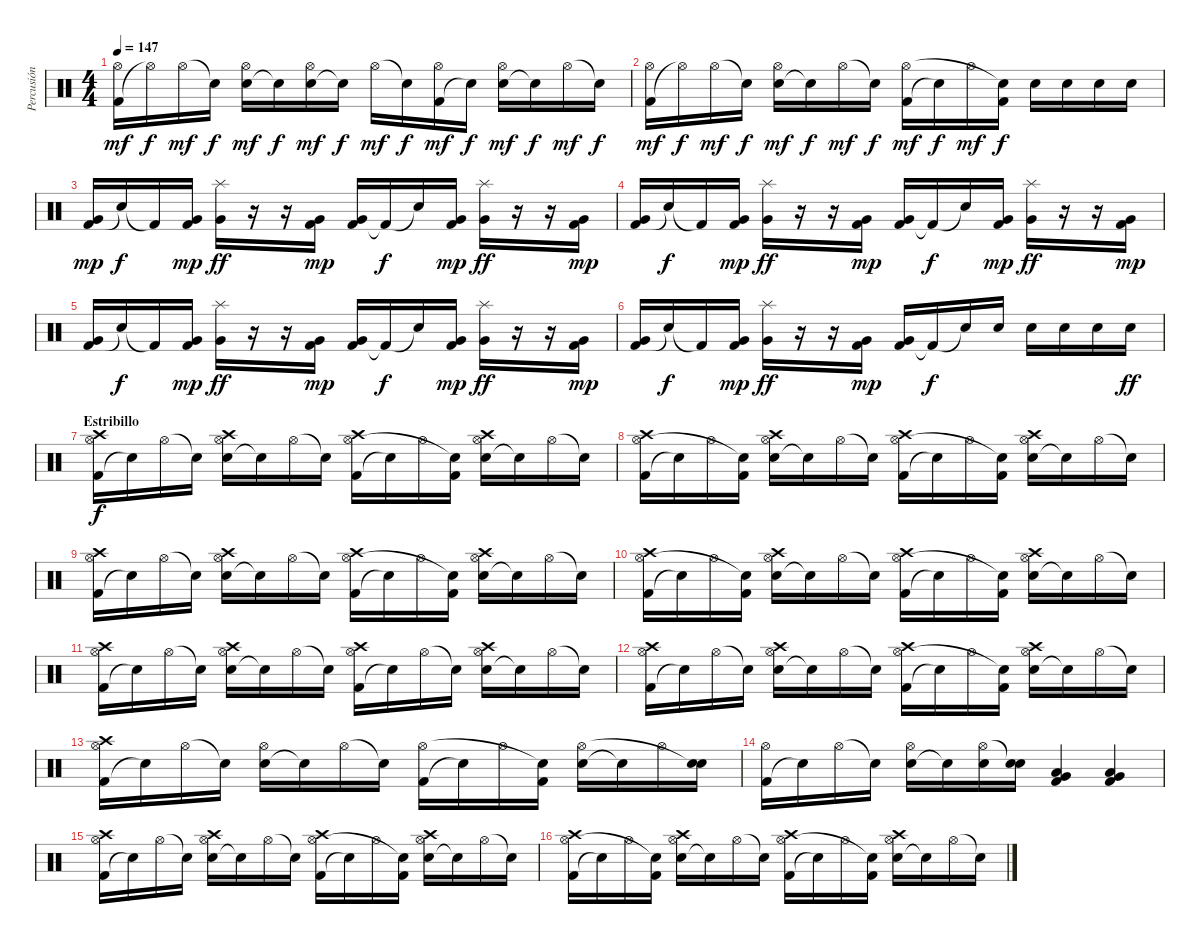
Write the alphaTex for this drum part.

\track ("Percusión" "Percusión") {instrument percussion}
\staff {score}
\articulation defaults
\ts (4 4)
\tempo 147
\clef neutral
\ks c
("Kick (hit) 2" "Hi-Hat (open)").16{dy mf} "Hi-Hat (open)"{t}.16{dy f} "Hi-Hat (open)".16{dy mf} "Snare (hit)"{t}.16{dy f} ("Electric Snare (hit)" "Hi-Hat (open)").16{dy mf} "Snare (hit)"{t}.16{dy f} ("Electric Snare (hit)" "Hi-Hat (open)").16{dy mf} "Snare (hit)"{t}.16{dy f} "Hi-Hat (open)".16{dy mf} "Snare (hit)"{t}.16{dy f} ("Kick (hit) 2" "Hi-Hat (open)").16{dy mf} "Snare (hit)"{t}.16{dy f} ("Electric Snare (hit)" "Hi-Hat (open)").16{dy mf} "Snare (hit)"{t}.16{dy f} "Hi-Hat (open)".16{dy mf} "Snare (hit)"{t}.16{dy f} |
("Kick (hit) 2" "Hi-Hat (open)").16{dy mf} "Hi-Hat (open)"{t}.16{dy f} "Hi-Hat (open)".16{dy mf} "Snare (hit)"{t}.16{dy f} ("Electric Snare (hit)" "Hi-Hat (open)").16{dy mf} "Snare (hit)"{t}.16{dy f} "Hi-Hat (open)".16{dy mf} "Snare (hit)"{t}.16{dy f} ("Kick (hit) 2" "Hi-Hat (open)").16{dy mf} "Snare (hit)"{t}.16{dy f} "Hi-Hat (open)".16{dy mf} ("Kick (hit) 2" "Snare (hit)"{t}).16{dy f} "Electric Snare (hit)".16 "Electric Snare (hit)".16 "Electric Snare (hit)".16 "Electric Snare (hit)".16 |
("Kick (hit) 2" "Very Low Tom (hit)").16{dy mp} "Snare (hit)"{t}.16{dy f} "Kick (hit) 2"{t}.16 ("Kick (hit) 2" "Very Low Tom (hit)").16{dy mp} ("Very Low Tom (hit)" "Splash (hit)").16{dy ff} r.16 r.16 ("Kick (hit) 2" "Very Low Tom (hit)").16{dy mp} ("Kick (hit) 2" "Very Low Tom (hit)").16 "Kick (hit) 2"{t}.16{dy f} "Snare (hit)"{t}.16 ("Kick (hit) 2" "Very Low Tom (hit)").16{dy mp} ("Very Low Tom (hit)" "Splash (hit)").16{dy ff} r.16 r.16 ("Kick (hit) 2" "Very Low Tom (hit)").16{dy mp} |
("Kick (hit) 2" "Very Low Tom (hit)").16 "Snare (hit)"{t}.16{dy f} "Kick (hit) 2"{t}.16 ("Kick (hit) 2" "Very Low Tom (hit)").16{dy mp} ("Very Low Tom (hit)" "Splash (hit)").16{dy ff} r.16 r.16 ("Kick (hit) 2" "Very Low Tom (hit)").16{dy mp} ("Kick (hit) 2" "Very Low Tom (hit)").16 "Kick (hit) 2"{t}.16{dy f} "Snare (hit)"{t}.16 ("Kick (hit) 2" "Very Low Tom (hit)").16{dy mp} ("Very Low Tom (hit)" "Splash (hit)").16{dy ff} r.16 r.16 ("Kick (hit) 2" "Very Low Tom (hit)").16{dy mp} |
("Kick (hit) 2" "Very Low Tom (hit)").16 "Snare (hit)"{t}.16{dy f} "Kick (hit) 2"{t}.16 ("Kick (hit) 2" "Very Low Tom (hit)").16{dy mp} ("Very Low Tom (hit)" "Splash (hit)").16{dy ff} r.16 r.16 ("Kick (hit) 2" "Very Low Tom (hit)").16{dy mp} ("Kick (hit) 2" "Very Low Tom (hit)").16 "Kick (hit) 2"{t}.16{dy f} "Snare (hit)"{t}.16 ("Kick (hit) 2" "Very Low Tom (hit)").16{dy mp} ("Very Low Tom (hit)" "Splash (hit)").16{dy ff} r.16 r.16 ("Kick (hit) 2" "Very Low Tom (hit)").16{dy mp} |
("Kick (hit) 2" "Very Low Tom (hit)").16 "Snare (hit)"{t}.16{dy f} "Kick (hit) 2"{t}.16 ("Kick (hit) 2" "Very Low Tom (hit)").16{dy mp} ("Very Low Tom (hit)" "Splash (hit)").16{dy ff} r.16 r.16 ("Kick (hit) 2" "Very Low Tom (hit)").16{dy mp} ("Kick (hit) 2" "Very Low Tom (hit)").16 "Kick (hit) 2"{t}.16{dy f} "Snare (hit)"{t}.16 "Electric Snare (hit)".16 "Electric Snare (hit)".16 "Electric Snare (hit)".16 "Electric Snare (hit)".16 "Electric Snare (hit)".16{dy ff} |
\section ("" "Estribillo")
("Kick (hit) 2" "Hi-Hat (open)" "Crash high (hit)").16{dy f} "Snare (hit)"{t}.16 "Hi-Hat (open)".16 "Snare (hit)"{t}.16 ("Electric Snare (hit)" "Hi-Hat (open)" "Crash high (hit)").16 "Snare (hit)"{t}.16 "Hi-Hat (open)".16 "Snare (hit)"{t}.16 ("Kick (hit) 2" "Hi-Hat (open)" "Crash high (hit)").16 "Snare (hit)"{t}.16 "Hi-Hat (open)".16 ("Kick (hit) 2" "Snare (hit)"{t}).16 ("Electric Snare (hit)" "Hi-Hat (open)" "Crash high (hit)").16 "Snare (hit)"{t}.16 "Hi-Hat (open)".16 "Snare (hit)"{t}.16 |
("Kick (hit) 2" "Hi-Hat (open)" "Crash high (hit)").16 "Snare (hit)"{t}.16 "Hi-Hat (open)".16 ("Kick (hit) 2" "Snare (hit)"{t}).16 ("Electric Snare (hit)" "Hi-Hat (open)" "Crash high (hit)").16 "Snare (hit)"{t}.16 "Hi-Hat (open)".16 "Snare (hit)"{t}.16 ("Kick (hit) 2" "Hi-Hat (open)" "Crash high (hit)").16 "Snare (hit)"{t}.16 "Hi-Hat (open)".16 ("Kick (hit) 2" "Snare (hit)"{t}).16 ("Electric Snare (hit)" "Hi-Hat (open)" "Crash high (hit)").16 "Snare (hit)"{t}.16 "Hi-Hat (open)".16 "Snare (hit)"{t}.16 |
("Kick (hit) 2" "Hi-Hat (open)" "Crash high (hit)").16 "Snare (hit)"{t}.16 "Hi-Hat (open)".16 "Snare (hit)"{t}.16 ("Electric Snare (hit)" "Hi-Hat (open)" "Crash high (hit)").16 "Snare (hit)"{t}.16 "Hi-Hat (open)".16 "Snare (hit)"{t}.16 ("Kick (hit) 2" "Hi-Hat (open)" "Crash high (hit)").16 "Snare (hit)"{t}.16 "Hi-Hat (open)".16 ("Kick (hit) 2" "Snare (hit)"{t}).16 ("Electric Snare (hit)" "Hi-Hat (open)" "Crash high (hit)").16 "Snare (hit)"{t}.16 "Hi-Hat (open)".16 "Snare (hit)"{t}.16 |
("Kick (hit) 2" "Hi-Hat (open)" "Crash high (hit)").16 "Snare (hit)"{t}.16 "Hi-Hat (open)".16 ("Kick (hit) 2" "Snare (hit)"{t}).16 ("Electric Snare (hit)" "Hi-Hat (open)" "Crash high (hit)").16 "Snare (hit)"{t}.16 "Hi-Hat (open)".16 "Snare (hit)"{t}.16 ("Kick (hit) 2" "Hi-Hat (open)" "Crash high (hit)").16 "Snare (hit)"{t}.16 "Hi-Hat (open)".16 ("Kick (hit) 2" "Snare (hit)"{t}).16 ("Electric Snare (hit)" "Hi-Hat (open)" "Crash high (hit)").16 "Snare (hit)"{t}.16 "Hi-Hat (open)".16 "Snare (hit)"{t}.16 |
("Kick (hit) 2" "Hi-Hat (open)" "Crash high (hit)").16 "Snare (hit)"{t}.16 "Hi-Hat (open)".16 "Snare (hit)"{t}.16 ("Electric Snare (hit)" "Hi-Hat (open)" "Crash high (hit)").16 "Snare (hit)"{t}.16 "Hi-Hat (open)".16 "Snare (hit)"{t}.16 ("Kick (hit) 2" "Hi-Hat (open)" "Crash high (hit)").16 "Snare (hit)"{t}.16 "Hi-Hat (open)".16 "Snare (hit)"{t}.16 ("Electric Snare (hit)" "Hi-Hat (open)" "Crash high (hit)").16 "Snare (hit)"{t}.16 "Hi-Hat (open)".16 "Snare (hit)"{t}.16 |
("Kick (hit) 2" "Hi-Hat (open)" "Crash high (hit)").16 "Snare (hit)"{t}.16 "Hi-Hat (open)".16 "Snare (hit)"{t}.16 ("Electric Snare (hit)" "Hi-Hat (open)" "Crash high (hit)").16 "Snare (hit)"{t}.16 "Hi-Hat (open)".16 "Snare (hit)"{t}.16 ("Kick (hit) 2" "Hi-Hat (open)" "Crash high (hit)").16 "Snare (hit)"{t}.16 "Hi-Hat (open)".16 ("Kick (hit) 2" "Snare (hit)"{t}).16 ("Electric Snare (hit)" "Hi-Hat (open)" "Crash high (hit)").16 "Snare (hit)"{t}.16 "Hi-Hat (open)".16 "Snare (hit)"{t}.16 |
("Kick (hit) 2" "Hi-Hat (open)" "Crash high (hit)").16 "Snare (hit)"{t}.16 "Hi-Hat (open)".16 "Snare (hit)"{t}.16 ("Electric Snare (hit)" "Hi-Hat (open)").16 "Snare (hit)"{t}.16 "Hi-Hat (open)".16 "Snare (hit)"{t}.16 ("Kick (hit) 2" "Hi-Hat (open)").16 "Snare (hit)"{t}.16 "Hi-Hat (open)".16 ("Kick (hit) 2" "Snare (hit)"{t}).16 ("Electric Snare (hit)" "Hi-Hat (open)").16 "Snare (hit)"{t}.16 "Hi-Hat (open)".16 ("Electric Snare (hit)" "Snare (hit)"{t}).16 |
("Kick (hit) 2" "Hi-Hat (open)").16 "Snare (hit)"{t}.16 "Hi-Hat (open)".16 "Snare (hit)"{t}.16 ("Electric Snare (hit)" "Hi-Hat (open)").16 "Snare (hit)"{t}.16 ("Electric Snare (hit)" "Hi-Hat (open)").16 ("Electric Snare (hit)" "Snare (hit)"{t}).16 ("Kick (hit) 2" "Very Low Tom (hit)" "Low Floor Tom (hit)").4 ("Kick (hit) 2" "Very Low Tom (hit)" "Low Floor Tom (hit)").4 |
("Kick (hit) 2" "Hi-Hat (open)" "Crash high (hit)").16 "Snare (hit)"{t}.16 "Hi-Hat (open)".16 "Snare (hit)"{t}.16 ("Electric Snare (hit)" "Hi-Hat (open)" "Crash high (hit)").16 "Snare (hit)"{t}.16 "Hi-Hat (open)".16 "Snare (hit)"{t}.16 ("Kick (hit) 2" "Hi-Hat (open)" "Crash high (hit)").16 "Snare (hit)"{t}.16 "Hi-Hat (open)".16 ("Kick (hit) 2" "Snare (hit)"{t}).16 ("Electric Snare (hit)" "Hi-Hat (open)" "Crash high (hit)").16 "Snare (hit)"{t}.16 "Hi-Hat (open)".16 "Snare (hit)"{t}.16 |
("Kick (hit) 2" "Hi-Hat (open)" "Crash high (hit)").16 "Snare (hit)"{t}.16 "Hi-Hat (open)".16 ("Kick (hit) 2" "Snare (hit)"{t}).16 ("Electric Snare (hit)" "Hi-Hat (open)" "Crash high (hit)").16 "Snare (hit)"{t}.16 "Hi-Hat (open)".16 "Snare (hit)"{t}.16 ("Kick (hit) 2" "Hi-Hat (open)" "Crash high (hit)").16 "Snare (hit)"{t}.16 "Hi-Hat (open)".16 ("Kick (hit) 2" "Snare (hit)"{t}).16 ("Electric Snare (hit)" "Hi-Hat (open)" "Crash high (hit)").16 "Snare (hit)"{t}.16 "Hi-Hat (open)".16 "Snare (hit)"{t}.16
